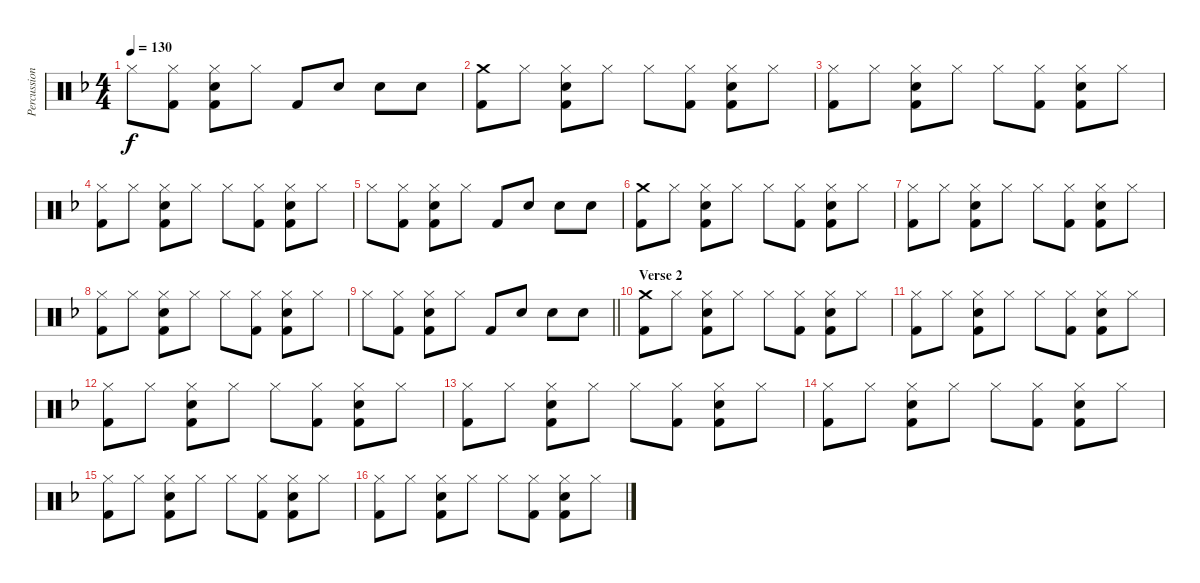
\track ("Percussion" "Percussion") {instrument percussion}
\staff {score}
\articulation defaults
\ts (4 4)
\tempo 130
\clef neutral
\ks f "Hi-Hat (closed)".8{dy f}
("Hi-Hat (closed)" "Kick (hit) 2").8 ("Hi-Hat (closed)" "Snare (hit) 2" "Kick (hit) 2").8 "Hi-Hat (closed)".8 "Kick (hit) 2".8 "Snare (hit) 2".8 "Snare (hit) 2".8 "Snare (hit) 2".8 |
("Crash medium (hit)" "Kick (hit) 2").8 "Hi-Hat (closed)".8 ("Hi-Hat (closed)" "Snare (hit) 2" "Kick (hit) 2").8 "Hi-Hat (closed)".8 "Hi-Hat (closed)".8 ("Hi-Hat (closed)" "Kick (hit) 2").8 ("Hi-Hat (closed)" "Snare (hit) 2" "Kick (hit) 2").8 "Hi-Hat (closed)".8 |
("Hi-Hat (closed)" "Kick (hit) 2").8 "Hi-Hat (closed)".8 ("Hi-Hat (closed)" "Snare (hit) 2" "Kick (hit) 2").8 "Hi-Hat (closed)".8 "Hi-Hat (closed)".8 ("Hi-Hat (closed)" "Kick (hit) 2").8 ("Hi-Hat (closed)" "Snare (hit) 2" "Kick (hit) 2").8 "Hi-Hat (closed)".8 |
("Hi-Hat (closed)" "Kick (hit) 2").8 "Hi-Hat (closed)".8 ("Hi-Hat (closed)" "Snare (hit) 2" "Kick (hit) 2").8 "Hi-Hat (closed)".8 "Hi-Hat (closed)".8 ("Hi-Hat (closed)" "Kick (hit) 2").8 ("Hi-Hat (closed)" "Snare (hit) 2" "Kick (hit) 2").8 "Hi-Hat (closed)".8 |
"Hi-Hat (closed)".8 ("Hi-Hat (closed)" "Kick (hit) 2").8 ("Hi-Hat (closed)" "Snare (hit) 2" "Kick (hit) 2").8 "Hi-Hat (closed)".8 "Kick (hit) 2".8 "Snare (hit) 2".8 "Snare (hit) 2".8 "Snare (hit) 2".8 |
("Crash medium (hit)" "Kick (hit) 2").8 "Hi-Hat (closed)".8 ("Hi-Hat (closed)" "Snare (hit) 2" "Kick (hit) 2").8 "Hi-Hat (closed)".8 "Hi-Hat (closed)".8 ("Hi-Hat (closed)" "Kick (hit) 2").8 ("Hi-Hat (closed)" "Snare (hit) 2" "Kick (hit) 2").8 "Hi-Hat (closed)".8 |
("Hi-Hat (closed)" "Kick (hit) 2").8 "Hi-Hat (closed)".8 ("Hi-Hat (closed)" "Snare (hit) 2" "Kick (hit) 2").8 "Hi-Hat (closed)".8 "Hi-Hat (closed)".8 ("Hi-Hat (closed)" "Kick (hit) 2").8 ("Hi-Hat (closed)" "Snare (hit) 2" "Kick (hit) 2").8 "Hi-Hat (closed)".8 |
("Hi-Hat (closed)" "Kick (hit) 2").8 "Hi-Hat (closed)".8 ("Hi-Hat (closed)" "Snare (hit) 2" "Kick (hit) 2").8 "Hi-Hat (closed)".8 "Hi-Hat (closed)".8 ("Hi-Hat (closed)" "Kick (hit) 2").8 ("Hi-Hat (closed)" "Snare (hit) 2" "Kick (hit) 2").8 "Hi-Hat (closed)".8 |
\barLineRight lightlight "Hi-Hat (closed)".8
("Hi-Hat (closed)" "Kick (hit) 2").8 ("Hi-Hat (closed)" "Snare (hit) 2" "Kick (hit) 2").8 "Hi-Hat (closed)".8 "Kick (hit) 2".8 "Snare (hit) 2".8 "Snare (hit) 2".8 "Snare (hit) 2".8 |
\section ("" "Verse 2")
("Crash medium (hit)" "Kick (hit) 2").8 "Hi-Hat (closed)".8 ("Hi-Hat (closed)" "Snare (hit) 2" "Kick (hit) 2").8 "Hi-Hat (closed)".8 "Hi-Hat (closed)".8 ("Hi-Hat (closed)" "Kick (hit) 2").8 ("Hi-Hat (closed)" "Snare (hit) 2" "Kick (hit) 2").8 "Hi-Hat (closed)".8 |
("Hi-Hat (closed)" "Kick (hit) 2").8 "Hi-Hat (closed)".8 ("Hi-Hat (closed)" "Snare (hit) 2" "Kick (hit) 2").8 "Hi-Hat (closed)".8 "Hi-Hat (closed)".8 ("Hi-Hat (closed)" "Kick (hit) 2").8 ("Hi-Hat (closed)" "Snare (hit) 2" "Kick (hit) 2").8 "Hi-Hat (closed)".8 |
("Hi-Hat (closed)" "Kick (hit) 2").8 "Hi-Hat (closed)".8 ("Hi-Hat (closed)" "Snare (hit) 2" "Kick (hit) 2").8 "Hi-Hat (closed)".8 "Hi-Hat (closed)".8 ("Hi-Hat (closed)" "Kick (hit) 2").8 ("Hi-Hat (closed)" "Snare (hit) 2" "Kick (hit) 2").8 "Hi-Hat (closed)".8 |
("Hi-Hat (closed)" "Kick (hit) 2").8 "Hi-Hat (closed)".8 ("Hi-Hat (closed)" "Snare (hit) 2" "Kick (hit) 2").8 "Hi-Hat (closed)".8 "Hi-Hat (closed)".8 ("Hi-Hat (closed)" "Kick (hit) 2").8 ("Hi-Hat (closed)" "Snare (hit) 2" "Kick (hit) 2").8 "Hi-Hat (closed)".8 |
("Hi-Hat (closed)" "Kick (hit) 2").8 "Hi-Hat (closed)".8 ("Hi-Hat (closed)" "Snare (hit) 2" "Kick (hit) 2").8 "Hi-Hat (closed)".8 "Hi-Hat (closed)".8 ("Hi-Hat (closed)" "Kick (hit) 2").8 ("Hi-Hat (closed)" "Snare (hit) 2" "Kick (hit) 2").8 "Hi-Hat (closed)".8 |
("Hi-Hat (closed)" "Kick (hit) 2").8 "Hi-Hat (closed)".8 ("Hi-Hat (closed)" "Snare (hit) 2" "Kick (hit) 2").8 "Hi-Hat (closed)".8 "Hi-Hat (closed)".8 ("Hi-Hat (closed)" "Kick (hit) 2").8 ("Hi-Hat (closed)" "Snare (hit) 2" "Kick (hit) 2").8 "Hi-Hat (closed)".8 |
("Hi-Hat (closed)" "Kick (hit) 2").8 "Hi-Hat (closed)".8 ("Hi-Hat (closed)" "Snare (hit) 2" "Kick (hit) 2").8 "Hi-Hat (closed)".8 "Hi-Hat (closed)".8 ("Hi-Hat (closed)" "Kick (hit) 2").8 ("Hi-Hat (closed)" "Snare (hit) 2" "Kick (hit) 2").8 "Hi-Hat (closed)".8
